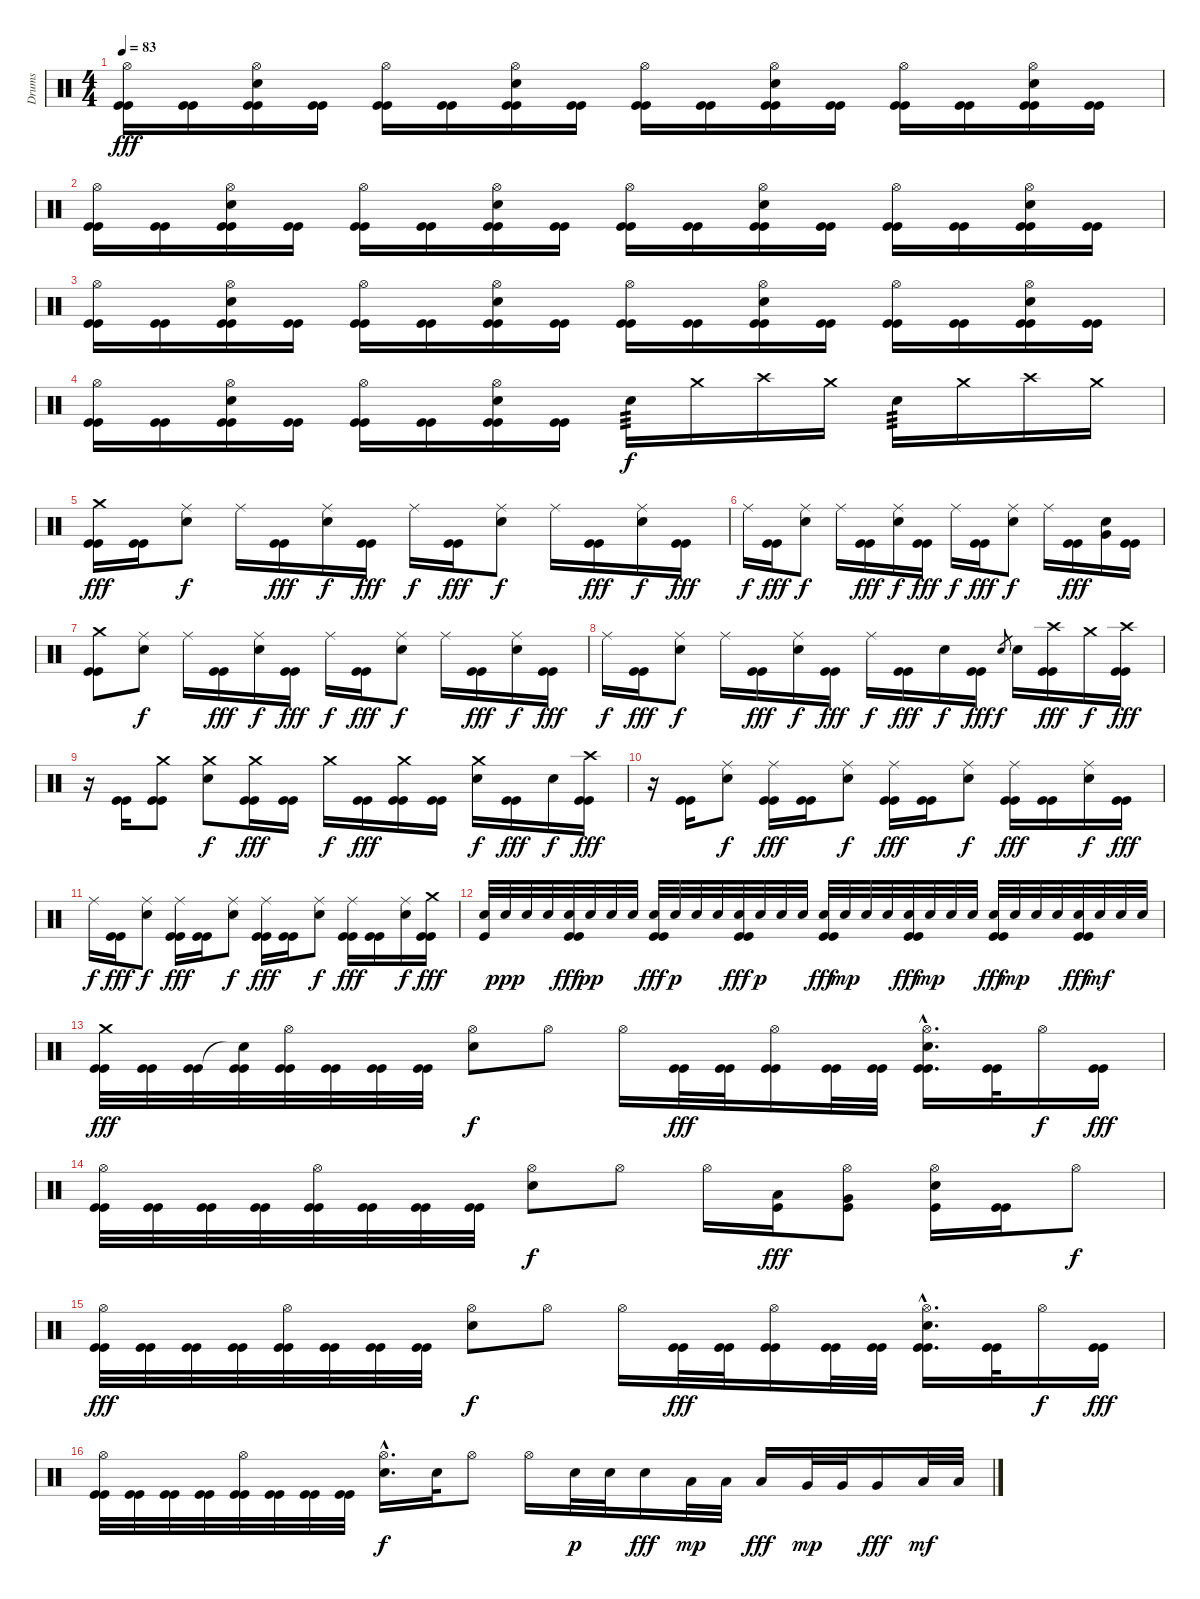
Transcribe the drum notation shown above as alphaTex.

\track ("Drums" "Drums") {instrument percussion}
\staff {score}
\articulation defaults
\ts (4 4)
\tempo 83
\clef neutral
\ks c
("Hi-Hat (open)" "Kick (hit)" "Kick (hit)").16{dy fff} ("Kick (hit)" "Kick (hit)").16 ("Hi-Hat (open)" "Snare (hit) 2" "Kick (hit)" "Kick (hit)").16 ("Kick (hit)" "Kick (hit)").16 ("Hi-Hat (open)" "Kick (hit)" "Kick (hit)").16 ("Kick (hit)" "Kick (hit)").16 ("Hi-Hat (open)" "Snare (hit) 2" "Kick (hit)" "Kick (hit)").16 ("Kick (hit)" "Kick (hit)").16 ("Hi-Hat (open)" "Kick (hit)" "Kick (hit)").16 ("Kick (hit)" "Kick (hit)").16 ("Hi-Hat (open)" "Snare (hit) 2" "Kick (hit)" "Kick (hit)").16 ("Kick (hit)" "Kick (hit)").16 ("Hi-Hat (open)" "Kick (hit)" "Kick (hit)").16 ("Kick (hit)" "Kick (hit)").16 ("Hi-Hat (open)" "Snare (hit) 2" "Kick (hit)" "Kick (hit)").16 ("Kick (hit)" "Kick (hit)").16 |
("Hi-Hat (open)" "Kick (hit)" "Kick (hit)").16 ("Kick (hit)" "Kick (hit)").16 ("Hi-Hat (open)" "Snare (hit) 2" "Kick (hit)" "Kick (hit)").16 ("Kick (hit)" "Kick (hit)").16 ("Hi-Hat (open)" "Kick (hit)" "Kick (hit)").16 ("Kick (hit)" "Kick (hit)").16 ("Hi-Hat (open)" "Snare (hit) 2" "Kick (hit)" "Kick (hit)").16 ("Kick (hit)" "Kick (hit)").16 ("Hi-Hat (open)" "Kick (hit)" "Kick (hit)").16 ("Kick (hit)" "Kick (hit)").16 ("Hi-Hat (open)" "Snare (hit) 2" "Kick (hit)" "Kick (hit)").16 ("Kick (hit)" "Kick (hit)").16 ("Hi-Hat (open)" "Kick (hit)" "Kick (hit)").16 ("Kick (hit)" "Kick (hit)").16 ("Hi-Hat (open)" "Snare (hit) 2" "Kick (hit)" "Kick (hit)").16 ("Kick (hit)" "Kick (hit)").16 |
("Hi-Hat (open)" "Kick (hit)" "Kick (hit)").16 ("Kick (hit)" "Kick (hit)").16 ("Hi-Hat (open)" "Snare (hit) 2" "Kick (hit)" "Kick (hit)").16 ("Kick (hit)" "Kick (hit)").16 ("Hi-Hat (open)" "Kick (hit)" "Kick (hit)").16 ("Kick (hit)" "Kick (hit)").16 ("Hi-Hat (open)" "Snare (hit) 2" "Kick (hit)" "Kick (hit)").16 ("Kick (hit)" "Kick (hit)").16 ("Hi-Hat (open)" "Kick (hit)" "Kick (hit)").16 ("Kick (hit)" "Kick (hit)").16 ("Hi-Hat (open)" "Snare (hit) 2" "Kick (hit)" "Kick (hit)").16 ("Kick (hit)" "Kick (hit)").16 ("Hi-Hat (open)" "Kick (hit)" "Kick (hit)").16 ("Kick (hit)" "Kick (hit)").16 ("Hi-Hat (open)" "Snare (hit) 2" "Kick (hit)" "Kick (hit)").16 ("Kick (hit)" "Kick (hit)").16 |
("Hi-Hat (open)" "Kick (hit)" "Kick (hit)").16 ("Kick (hit)" "Kick (hit)").16 ("Hi-Hat (open)" "Snare (hit) 2" "Kick (hit)" "Kick (hit)").16 ("Kick (hit)" "Kick (hit)").16 ("Hi-Hat (open)" "Kick (hit)" "Kick (hit)").16 ("Kick (hit)" "Kick (hit)").16 ("Hi-Hat (open)" "Snare (hit) 2" "Kick (hit)" "Kick (hit)").16 ("Kick (hit)" "Kick (hit)").16 "Snare (hit) 2".16{tp 3 dy f} "Crash medium (hit)".16 "Crash high (hit)".16 "Crash medium (hit)".16 "Snare (hit) 2".16{tp 3} "Crash medium (hit)".16 "Crash high (hit)".16 "Crash medium (hit)".16 |
("Crash medium (hit)" "Kick (hit)" "Kick (hit)").16{dy fff} ("Kick (hit)" "Kick (hit)").16 ("Ride (middle)" "Snare (hit) 2").8{dy f} "Ride (middle)".16 ("Kick (hit)" "Kick (hit)").16{dy fff} ("Ride (middle)" "Snare (hit) 2").16{dy f} ("Kick (hit)" "Kick (hit)").16{dy fff} "Ride (middle)".16{dy f} ("Kick (hit)" "Kick (hit)").16{dy fff} ("Ride (middle)" "Snare (hit) 2").8{dy f} "Ride (middle)".16 ("Kick (hit)" "Kick (hit)").16{dy fff} ("Ride (middle)" "Snare (hit) 2").16{dy f} ("Kick (hit)" "Kick (hit)").16{dy fff} |
"Ride (middle)".16{dy f} ("Kick (hit)" "Kick (hit)").16{dy fff} ("Ride (middle)" "Snare (hit) 2").8{dy f} "Ride (middle)".16 ("Kick (hit)" "Kick (hit)").16{dy fff} ("Ride (middle)" "Snare (hit) 2").16{dy f} ("Kick (hit)" "Kick (hit)").16{dy fff} "Ride (middle)".16{dy f} ("Kick (hit)" "Kick (hit)").16{dy fff} ("Ride (middle)" "Snare (hit) 2").8{dy f} "Ride (middle)".16 ("Kick (hit)" "Kick (hit)").16{dy fff} ("Snare (hit) 2" "Very Low Tom (hit)").16 ("Kick (hit)" "Kick (hit)").16 |
("Crash medium (hit)" "Kick (hit)" "Kick (hit)").8 ("Ride (middle)" "Snare (hit) 2").8{dy f} "Ride (middle)".16 ("Kick (hit)" "Kick (hit)").16{dy fff} ("Ride (middle)" "Snare (hit) 2").16{dy f} ("Kick (hit)" "Kick (hit)").16{dy fff} "Ride (middle)".16{dy f} ("Kick (hit)" "Kick (hit)").16{dy fff} ("Ride (middle)" "Snare (hit) 2").8{dy f} "Ride (middle)".16 ("Kick (hit)" "Kick (hit)").16{dy fff} ("Ride (middle)" "Snare (hit) 2").16{dy f} ("Kick (hit)" "Kick (hit)").16{dy fff} |
"Ride (middle)".16{dy f} ("Kick (hit)" "Kick (hit)").16{dy fff} ("Ride (middle)" "Snare (hit) 2").8{dy f} "Ride (middle)".16 ("Kick (hit)" "Kick (hit)").16{dy fff} ("Ride (middle)" "Snare (hit) 2").16{dy f} ("Kick (hit)" "Kick (hit)").16{dy fff} "Ride (middle)".16{dy f} ("Kick (hit)" "Kick (hit)").16{dy fff} "Snare (hit) 2".16{dy f} ("Kick (hit)" "Kick (hit)").16{dy fff} "Snare (hit) 2".8{gr dy f} "Snare (hit) 2".16 ("Crash high (hit)" "Kick (hit)" "Kick (hit)").16{dy fff} "Crash medium (hit)".16{dy f} ("Crash high (hit)" "Kick (hit)" "Kick (hit)").16{dy fff} |
r.16 ("Kick (hit)" "Kick (hit)").16 ("Crash medium (hit)" "Kick (hit)" "Kick (hit)").8 ("Crash medium (hit)" "Snare (hit) 2").8{dy f} ("Crash medium (hit)" "Kick (hit)" "Kick (hit)").16{dy fff} ("Kick (hit)" "Kick (hit)").16 "Crash medium (hit)".16{dy f} ("Kick (hit)" "Kick (hit)").16{dy fff} ("Crash medium (hit)" "Kick (hit)" "Kick (hit)").16 ("Kick (hit)" "Kick (hit)").16 ("Crash medium (hit)" "Snare (hit) 2").16{dy f} ("Kick (hit)" "Kick (hit)").16{dy fff} "Snare (hit) 2".16{dy f} ("Crash high (hit)" "Kick (hit)" "Kick (hit)").16{dy fff} |
r.16 ("Kick (hit)" "Kick (hit)").16 ("Ride (middle)" "Snare (hit) 2").8{dy f} ("Ride (middle)" "Kick (hit)" "Kick (hit)").16{dy fff} ("Kick (hit)" "Kick (hit)").16 ("Ride (middle)" "Snare (hit) 2").8{dy f} ("Ride (middle)" "Kick (hit)" "Kick (hit)").16{dy fff} ("Kick (hit)" "Kick (hit)").16 ("Ride (middle)" "Snare (hit) 2").8{dy f} ("Ride (middle)" "Kick (hit)" "Kick (hit)").16{dy fff} ("Kick (hit)" "Kick (hit)").16 ("Ride (middle)" "Snare (hit) 2").16{dy f} ("Kick (hit)" "Kick (hit)").16{dy fff} |
"Ride (middle)".16{dy f} ("Kick (hit)" "Kick (hit)").16{dy fff} ("Ride (middle)" "Snare (hit) 2").8{dy f} ("Ride (middle)" "Kick (hit)" "Kick (hit)").16{dy fff} ("Kick (hit)" "Kick (hit)").16 ("Ride (middle)" "Snare (hit) 2").8{dy f} ("Ride (middle)" "Kick (hit)" "Kick (hit)").16{dy fff} ("Kick (hit)" "Kick (hit)").16 ("Ride (middle)" "Snare (hit) 2").8{dy f} ("Ride (middle)" "Kick (hit)" "Kick (hit)").16{dy fff} ("Kick (hit)" "Kick (hit)").16 ("Ride (middle)" "Snare (hit) 2").16{dy f} ("Crash medium (hit)" "Kick (hit)" "Kick (hit)").16{dy fff} |
("Snare (hit) 2" "Kick (hit)").32 "Snare (hit) 2".32{dy ppp} "Snare (hit) 2".32 "Snare (hit) 2".32 ("Snare (hit) 2" "Kick (hit)" "Kick (hit)").32{dy fff} "Snare (hit) 2".32{dy pp} "Snare (hit) 2".32 "Snare (hit) 2".32 ("Snare (hit) 2" "Kick (hit)" "Kick (hit)").32{dy fff} "Snare (hit) 2".32{dy p} "Snare (hit) 2".32 "Snare (hit) 2".32 ("Snare (hit) 2" "Kick (hit)" "Kick (hit)").32{dy fff} "Snare (hit) 2".32{dy p} "Snare (hit) 2".32 "Snare (hit) 2".32 ("Snare (hit) 2" "Kick (hit)" "Kick (hit)").32{dy fff} "Snare (hit) 2".32{dy mp} "Snare (hit) 2".32 "Snare (hit) 2".32 ("Snare (hit) 2" "Kick (hit)" "Kick (hit)").32{dy fff} "Snare (hit) 2".32{dy mp} "Snare (hit) 2".32 "Snare (hit) 2".32 ("Snare (hit) 2" "Kick (hit)" "Kick (hit)").32{dy fff} "Snare (hit) 2".32{dy mp} "Snare (hit) 2".32 "Snare (hit) 2".32 ("Snare (hit) 2" "Kick (hit)" "Kick (hit)").32{dy fff} "Snare (hit) 2".32{dy mf} "Snare (hit) 2".32 "Snare (hit) 2".32 |
("Crash medium (hit)" "Kick (hit)" "Kick (hit)").32{dy fff} ("Kick (hit)" "Kick (hit)").32 ("Kick (hit)" "Kick (hit)").32 ("Snare (hit)"{t} "Kick (hit)" "Kick (hit)").32 ("Hi-Hat (open)" "Kick (hit)" "Kick (hit)").32 ("Kick (hit)" "Kick (hit)").32 ("Kick (hit)" "Kick (hit)").32 ("Kick (hit)" "Kick (hit)").32 ("Hi-Hat (open)" "Snare (hit) 2").8{dy f} "Hi-Hat (open)".8 "Hi-Hat (open)".16 ("Kick (hit)" "Kick (hit)").32{dy fff} ("Kick (hit)" "Kick (hit)").32 ("Hi-Hat (open)" "Kick (hit)" "Kick (hit)").16 ("Kick (hit)" "Kick (hit)").32 ("Kick (hit)" "Kick (hit)").32 ("Hi-Hat (open)"{hac} "Snare (hit) 2"{hac} "Kick (hit)"{hac} "Kick (hit)"{hac}).16{d} ("Kick (hit)" "Kick (hit)").32 "Hi-Hat (open)".16{dy f} ("Kick (hit)" "Kick (hit)").16{dy fff} |
("Hi-Hat (open)" "Kick (hit)" "Kick (hit)").32 ("Kick (hit)" "Kick (hit)").32 ("Kick (hit)" "Kick (hit)").32 ("Kick (hit)" "Kick (hit)").32 ("Hi-Hat (open)" "Kick (hit)" "Kick (hit)").32 ("Kick (hit)" "Kick (hit)").32 ("Kick (hit)" "Kick (hit)").32 ("Kick (hit)" "Kick (hit)").32 ("Hi-Hat (open)" "Snare (hit) 2").8{dy f} "Hi-Hat (open)".8 "Hi-Hat (open)".16 ("Low Tom (hit)" "Kick (hit)").16{dy fff} ("Hi-Hat (open)" "Very Low Tom (hit)" "Kick (hit)").8 ("Hi-Hat (open)" "Snare (hit) 2" "Kick (hit)").16 ("Kick (hit)" "Kick (hit)").16 "Hi-Hat (open)".8{dy f} |
("Hi-Hat (open)" "Kick (hit)" "Kick (hit)").32{dy fff} ("Kick (hit)" "Kick (hit)").32 ("Kick (hit)" "Kick (hit)").32 ("Kick (hit)" "Kick (hit)").32 ("Hi-Hat (open)" "Kick (hit)" "Kick (hit)").32 ("Kick (hit)" "Kick (hit)").32 ("Kick (hit)" "Kick (hit)").32 ("Kick (hit)" "Kick (hit)").32 ("Hi-Hat (open)" "Snare (hit) 2").8{dy f} "Hi-Hat (open)".8 "Hi-Hat (open)".16 ("Kick (hit)" "Kick (hit)").32{dy fff} ("Kick (hit)" "Kick (hit)").32 ("Hi-Hat (open)" "Kick (hit)" "Kick (hit)").16 ("Kick (hit)" "Kick (hit)").32 ("Kick (hit)" "Kick (hit)").32 ("Hi-Hat (open)"{hac} "Snare (hit) 2"{hac} "Kick (hit)"{hac} "Kick (hit)"{hac}).16{d} ("Kick (hit)" "Kick (hit)").32 "Hi-Hat (open)".16{dy f} ("Kick (hit)" "Kick (hit)").16{dy fff} |
("Hi-Hat (open)" "Kick (hit)" "Kick (hit)").32 ("Kick (hit)" "Kick (hit)").32 ("Kick (hit)" "Kick (hit)").32 ("Kick (hit)" "Kick (hit)").32 ("Hi-Hat (open)" "Kick (hit)" "Kick (hit)").32 ("Kick (hit)" "Kick (hit)").32 ("Kick (hit)" "Kick (hit)").32 ("Kick (hit)" "Kick (hit)").32 ("Hi-Hat (open)"{hac} "Snare (hit) 2"{hac}).16{d dy f} "Snare (hit) 2".32 "Hi-Hat (open)".8 "Hi-Hat (open)".16 "Snare (hit) 2".32{dy p} "Snare (hit) 2".32 "Snare (hit) 2".16{dy fff} "Low Tom (hit)".32{dy mp} "Low Tom (hit)".32 "Low Tom (hit)".16{dy fff} "Very Low Tom (hit)".32{dy mp} "Very Low Tom (hit)".32 "Very Low Tom (hit)".16{dy fff} "Low Floor Tom (hit)".32{dy mf} "Low Floor Tom (hit)".32
